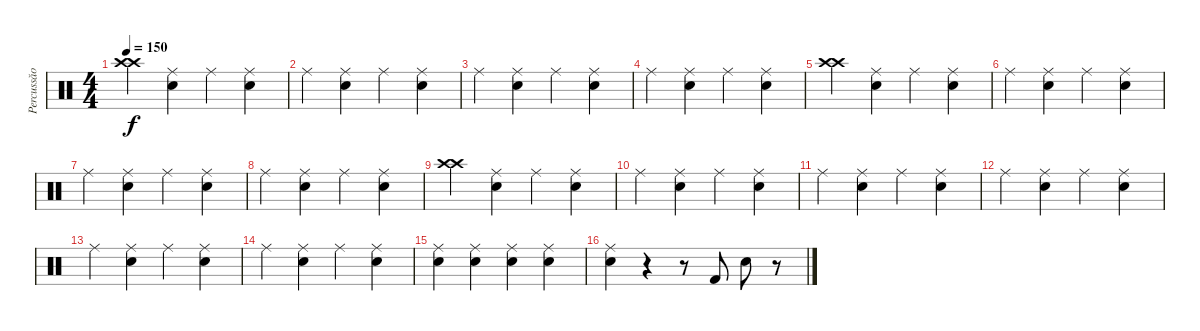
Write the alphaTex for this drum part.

\track ("Percussăo" "Percussăo") {instrument percussion}
\staff {score}
\articulation defaults
\ts (4 4)
\tempo 150
\clef neutral
\ks c
("Crash high (hit)" "Crash high (hit)").4{dy f} ("Ride (middle)" "Snare (hit) 2").4 "Ride (middle)".4 ("Ride (middle)" "Snare (hit) 2").4 |
"Ride (middle)".4 ("Ride (middle)" "Snare (hit) 2").4 "Ride (middle)".4 ("Ride (middle)" "Snare (hit) 2").4 |
"Ride (middle)".4 ("Ride (middle)" "Snare (hit) 2").4 "Ride (middle)".4 ("Ride (middle)" "Snare (hit) 2").4 |
"Ride (middle)".4 ("Ride (middle)" "Snare (hit) 2").4 "Ride (middle)".4 ("Ride (middle)" "Snare (hit) 2").4 |
("Crash high (hit)" "Crash high (hit)").4 ("Ride (middle)" "Snare (hit) 2").4 "Ride (middle)".4 ("Ride (middle)" "Snare (hit) 2").4 |
"Ride (middle)".4 ("Ride (middle)" "Snare (hit) 2").4 "Ride (middle)".4 ("Ride (middle)" "Snare (hit) 2").4 |
"Ride (middle)".4 ("Ride (middle)" "Snare (hit) 2").4 "Ride (middle)".4 ("Ride (middle)" "Snare (hit) 2").4 |
"Ride (middle)".4 ("Ride (middle)" "Snare (hit) 2").4 "Ride (middle)".4 ("Ride (middle)" "Snare (hit) 2").4 |
("Crash high (hit)" "Crash high (hit)").4 ("Ride (middle)" "Snare (hit) 2").4 "Ride (middle)".4 ("Ride (middle)" "Snare (hit) 2").4 |
"Ride (middle)".4 ("Ride (middle)" "Snare (hit) 2").4 "Ride (middle)".4 ("Ride (middle)" "Snare (hit) 2").4 |
"Ride (middle)".4 ("Ride (middle)" "Snare (hit) 2").4 "Ride (middle)".4 ("Ride (middle)" "Snare (hit) 2").4 |
"Ride (middle)".4 ("Ride (middle)" "Snare (hit) 2").4 "Ride (middle)".4 ("Ride (middle)" "Snare (hit) 2").4 |
"Ride (middle)".4 ("Ride (middle)" "Snare (hit) 2").4 "Ride (middle)".4 ("Ride (middle)" "Snare (hit) 2").4 |
"Ride (middle)".4 ("Ride (middle)" "Snare (hit) 2").4 "Ride (middle)".4 ("Ride (middle)" "Snare (hit) 2").4 |
("Ride (middle)" "Snare (hit) 2").4 ("Ride (middle)" "Snare (hit) 2").4 ("Ride (middle)" "Snare (hit) 2").4 ("Ride (middle)" "Snare (hit) 2").4 |
("Ride (middle)" "Snare (hit) 2").4 r.4 r.8 "Kick (hit) 2".8 "Snare (hit) 2".8 r.8
